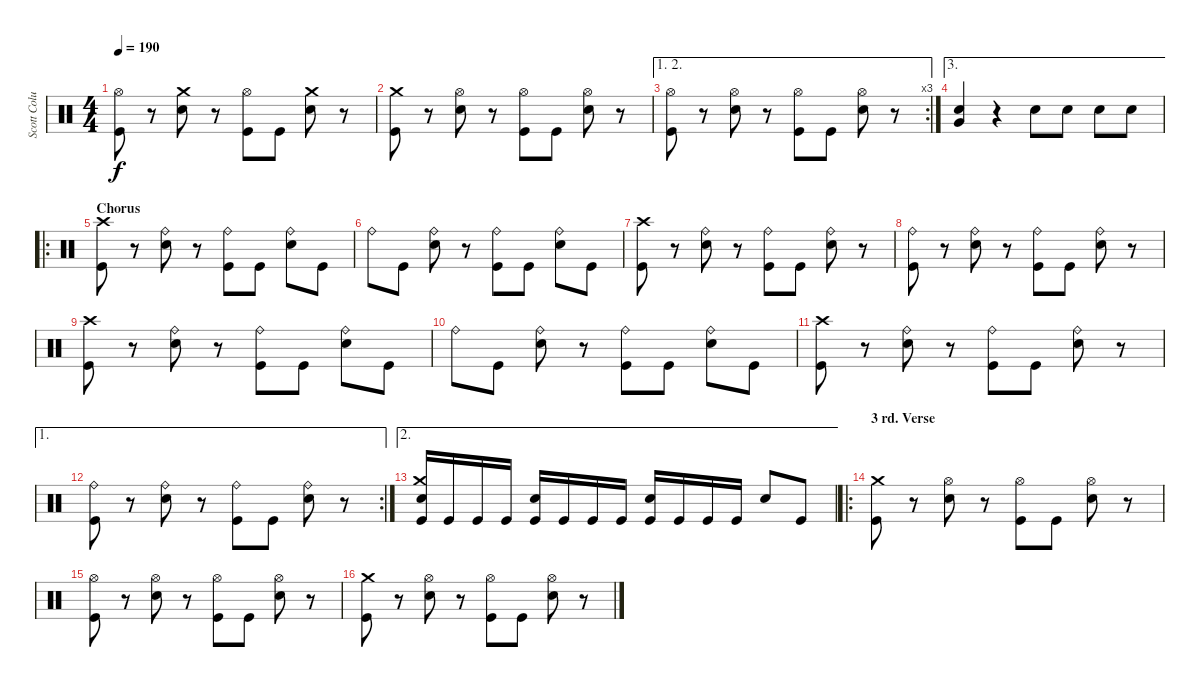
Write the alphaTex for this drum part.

\track ("Scott Columbus" "Scott Colu") {instrument percussion}
\staff {score}
\articulation defaults
\ts (4 4)
\tempo 190
\clef neutral
\ks c
("Hi-Hat (open)" "Kick (hit)").8{dy f} r.8 ("Crash medium (hit)" "Snare (hit) 2").8 r.8 ("Hi-Hat (open)" "Kick (hit)").8 "Kick (hit)".8 ("Crash medium (hit)" "Snare (hit) 2").8 r.8 |
("Crash medium (hit)" "Kick (hit)").8 r.8 ("Hi-Hat (open)" "Snare (hit) 2").8 r.8 ("Hi-Hat (open)" "Kick (hit)").8 "Kick (hit)".8 ("Hi-Hat (open)" "Snare (hit) 2").8 r.8 |
\ae (1 2)
\rc 3
("Hi-Hat (open)" "Kick (hit)").8 r.8 ("Hi-Hat (open)" "Snare (hit) 2").8 r.8 ("Hi-Hat (open)" "Kick (hit)").8 "Kick (hit)".8 ("Hi-Hat (open)" "Snare (hit) 2").8 r.8 |
\ae 3
("Very Low Tom (hit)" "Snare (hit) 2").4 r.4 "Snare (hit) 2".8 "Snare (hit) 2".8 "Snare (hit) 2".8 "Snare (hit) 2".8 |
\ro
\section ("" "Chorus")
("Crash high (hit)" "Kick (hit)").8 r.8 ("Ride (bell)" "Snare (hit) 2").8 r.8 ("Ride (bell)" "Kick (hit)").8 "Kick (hit)".8 ("Ride (bell)" "Snare (hit) 2").8 "Kick (hit)".8 |
"Ride (bell)".8 "Kick (hit)".8 ("Ride (bell)" "Snare (hit) 2").8 r.8 ("Ride (bell)" "Kick (hit)").8 "Kick (hit)".8 ("Ride (bell)" "Snare (hit) 2").8 "Kick (hit)".8 |
("Crash high (hit)" "Kick (hit)").8 r.8 ("Ride (bell)" "Snare (hit) 2").8 r.8 ("Ride (bell)" "Kick (hit)").8 "Kick (hit)".8 ("Ride (bell)" "Snare (hit) 2").8 r.8 |
("Ride (bell)" "Kick (hit)").8 r.8 ("Ride (bell)" "Snare (hit) 2").8 r.8 ("Ride (bell)" "Kick (hit)").8 "Kick (hit)".8 ("Ride (bell)" "Snare (hit) 2").8 r.8 |
("Crash high (hit)" "Kick (hit)").8 r.8 ("Ride (bell)" "Snare (hit) 2").8 r.8 ("Ride (bell)" "Kick (hit)").8 "Kick (hit)".8 ("Ride (bell)" "Snare (hit) 2").8 "Kick (hit)".8 |
"Ride (bell)".8 "Kick (hit)".8 ("Ride (bell)" "Snare (hit) 2").8 r.8 ("Ride (bell)" "Kick (hit)").8 "Kick (hit)".8 ("Ride (bell)" "Snare (hit) 2").8 "Kick (hit)".8 |
("Crash high (hit)" "Kick (hit)").8 r.8 ("Ride (bell)" "Snare (hit) 2").8 r.8 ("Ride (bell)" "Kick (hit)").8 "Kick (hit)".8 ("Ride (bell)" "Snare (hit) 2").8 r.8 |
\ae 1
\rc 2
("Ride (bell)" "Kick (hit)").8 r.8 ("Ride (bell)" "Snare (hit) 2").8 r.8 ("Ride (bell)" "Kick (hit)").8 "Kick (hit)".8 ("Ride (bell)" "Snare (hit) 2").8 r.8 |
\ae 2
("Crash medium (hit)" "Snare (hit) 2" "Kick (hit)").16 "Kick (hit)".16 "Kick (hit)".16 "Kick (hit)".16 ("Snare (hit) 2" "Kick (hit)").16 "Kick (hit)".16 "Kick (hit)".16 "Kick (hit)".16 ("Snare (hit) 2" "Kick (hit)").16 "Kick (hit)".16 "Kick (hit)".16 "Kick (hit)".16 "Snare (hit) 2".8 "Kick (hit)".8 |
\ro
\section ("" "3 rd. Verse")
("Crash medium (hit)" "Kick (hit)").8 r.8 ("Hi-Hat (open)" "Snare (hit) 2").8 r.8 ("Hi-Hat (open)" "Kick (hit)").8 "Kick (hit)".8 ("Hi-Hat (open)" "Snare (hit) 2").8 r.8 |
("Hi-Hat (open)" "Kick (hit)").8 r.8 ("Hi-Hat (open)" "Snare (hit) 2").8 r.8 ("Hi-Hat (open)" "Kick (hit)").8 "Kick (hit)".8 ("Hi-Hat (open)" "Snare (hit) 2").8 r.8 |
("Crash medium (hit)" "Kick (hit)").8 r.8 ("Hi-Hat (open)" "Snare (hit) 2").8 r.8 ("Hi-Hat (open)" "Kick (hit)").8 "Kick (hit)".8 ("Hi-Hat (open)" "Snare (hit) 2").8 r.8
